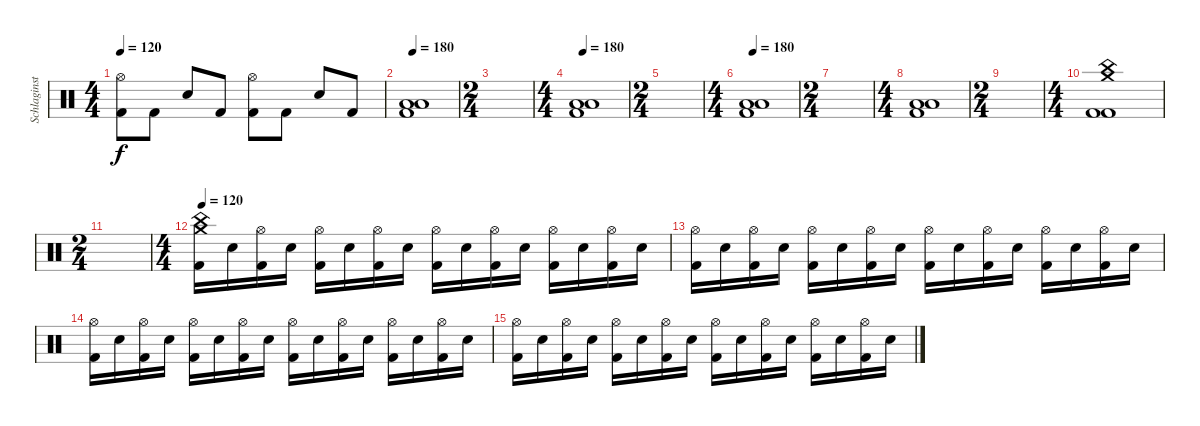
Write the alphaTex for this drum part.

\track ("Schlaginstrumente - Auswahl" "Schlaginst") {instrument percussion}
\staff {score}
\articulation defaults
\ts (4 4)
\tempo 120
\clef neutral
\ks c
("Hi-Hat (open)" "Kick (hit) 2").8{dy f} "Kick (hit) 2".8 "Electric Snare (hit)".8 "Kick (hit) 2".8 ("Hi-Hat (open)" "Kick (hit) 2").8 "Kick (hit) 2".8 "Electric Snare (hit)".8 "Kick (hit) 2".8 |
\tempo 180
("Low Floor Tom (hit)" "Low Floor Tom (hit)" "Kick (hit) 2").1 |
\ts (2 4)
|
\ts (4 4)
\tempo 180
("Low Floor Tom (hit)" "Low Floor Tom (hit)" "Kick (hit) 2").1 |
\ts (2 4)
|
\ts (4 4)
\tempo 180
("Low Floor Tom (hit)" "Low Floor Tom (hit)" "Kick (hit) 2").1 |
\ts (2 4)
|
\ts (4 4)
("Low Floor Tom (hit)" "Low Floor Tom (hit)" "Kick (hit) 2").1 |
\ts (2 4)
|
\ts (4 4)
("Crash medium (hit)" "China (hit)" "Kick (hit) 2" "Kick (hit) 2").1 |
\ts (2 4)
|
\ts (4 4)
\tempo 120
("Crash medium (hit)" "China (hit)" "Kick (hit) 2").16 "Electric Snare (hit)".16 ("Hi-Hat (open)" "Kick (hit) 2").16 "Electric Snare (hit)".16 ("Hi-Hat (open)" "Kick (hit) 2").16 "Electric Snare (hit)".16 ("Hi-Hat (open)" "Kick (hit) 2").16 "Electric Snare (hit)".16 ("Hi-Hat (open)" "Kick (hit) 2").16 "Electric Snare (hit)".16 ("Hi-Hat (open)" "Kick (hit) 2").16 "Electric Snare (hit)".16 ("Hi-Hat (open)" "Kick (hit) 2").16 "Electric Snare (hit)".16 ("Hi-Hat (open)" "Kick (hit) 2").16 "Electric Snare (hit)".16 |
("Hi-Hat (open)" "Kick (hit) 2").16 "Electric Snare (hit)".16 ("Hi-Hat (open)" "Kick (hit) 2").16 "Electric Snare (hit)".16 ("Hi-Hat (open)" "Kick (hit) 2").16 "Electric Snare (hit)".16 ("Hi-Hat (open)" "Kick (hit) 2").16 "Electric Snare (hit)".16 ("Hi-Hat (open)" "Kick (hit) 2").16 "Electric Snare (hit)".16 ("Hi-Hat (open)" "Kick (hit) 2").16 "Electric Snare (hit)".16 ("Hi-Hat (open)" "Kick (hit) 2").16 "Electric Snare (hit)".16 ("Hi-Hat (open)" "Kick (hit) 2").16 "Electric Snare (hit)".16 |
("Hi-Hat (open)" "Kick (hit) 2").16 "Electric Snare (hit)".16 ("Hi-Hat (open)" "Kick (hit) 2").16 "Electric Snare (hit)".16 ("Hi-Hat (open)" "Kick (hit) 2").16 "Electric Snare (hit)".16 ("Hi-Hat (open)" "Kick (hit) 2").16 "Electric Snare (hit)".16 ("Hi-Hat (open)" "Kick (hit) 2").16 "Electric Snare (hit)".16 ("Hi-Hat (open)" "Kick (hit) 2").16 "Electric Snare (hit)".16 ("Hi-Hat (open)" "Kick (hit) 2").16 "Electric Snare (hit)".16 ("Hi-Hat (open)" "Kick (hit) 2").16 "Electric Snare (hit)".16 |
("Hi-Hat (open)" "Kick (hit) 2").16 "Electric Snare (hit)".16 ("Hi-Hat (open)" "Kick (hit) 2").16 "Electric Snare (hit)".16 ("Hi-Hat (open)" "Kick (hit) 2").16 "Electric Snare (hit)".16 ("Hi-Hat (open)" "Kick (hit) 2").16 "Electric Snare (hit)".16 ("Hi-Hat (open)" "Kick (hit) 2").16 "Electric Snare (hit)".16 ("Hi-Hat (open)" "Kick (hit) 2").16 "Electric Snare (hit)".16 ("Hi-Hat (open)" "Kick (hit) 2").16 "Electric Snare (hit)".16 ("Hi-Hat (open)" "Kick (hit) 2").16 "Electric Snare (hit)".16
